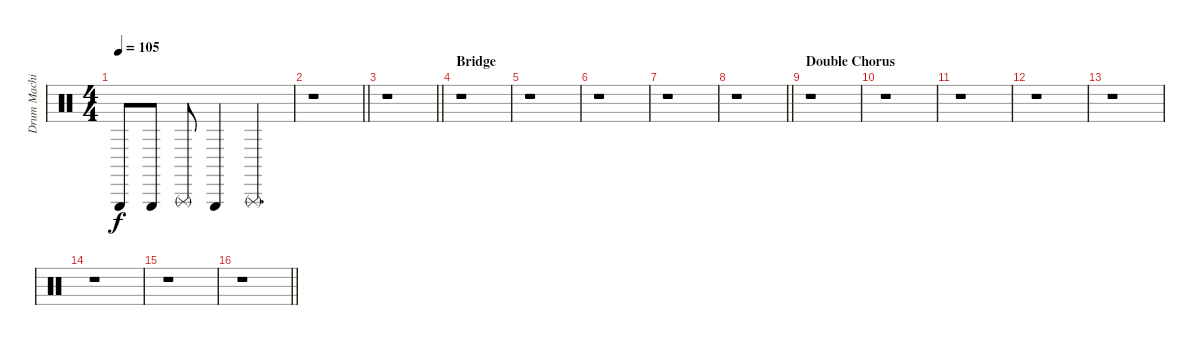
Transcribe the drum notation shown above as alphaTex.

\track ("Drum Machine" "Drum Machi") {instrument percussion}
\staff {score}
\articulation defaults
\ts (4 4)
\tempo 105
\clef neutral
\ks c "Triangle (hit)".8{dy f} "Triangle (hit)".8 "Triangle (rnute)".8 "Triangle (hit)".4 "Triangle (rnute)".4{d}
|
\barLineRight lightlight
r.1 |
\section ("" "")
\barLineRight lightlight
r.1 |
\section ("" "Bridge")
r.1 |
r.1 |
r.1 |
r.1 |
\barLineRight lightlight
r.1 |
\section ("" "Double Chorus")
r.1 |
r.1 |
r.1 |
r.1 |
r.1 |
r.1 |
r.1 |
\barLineRight lightlight
r.1
